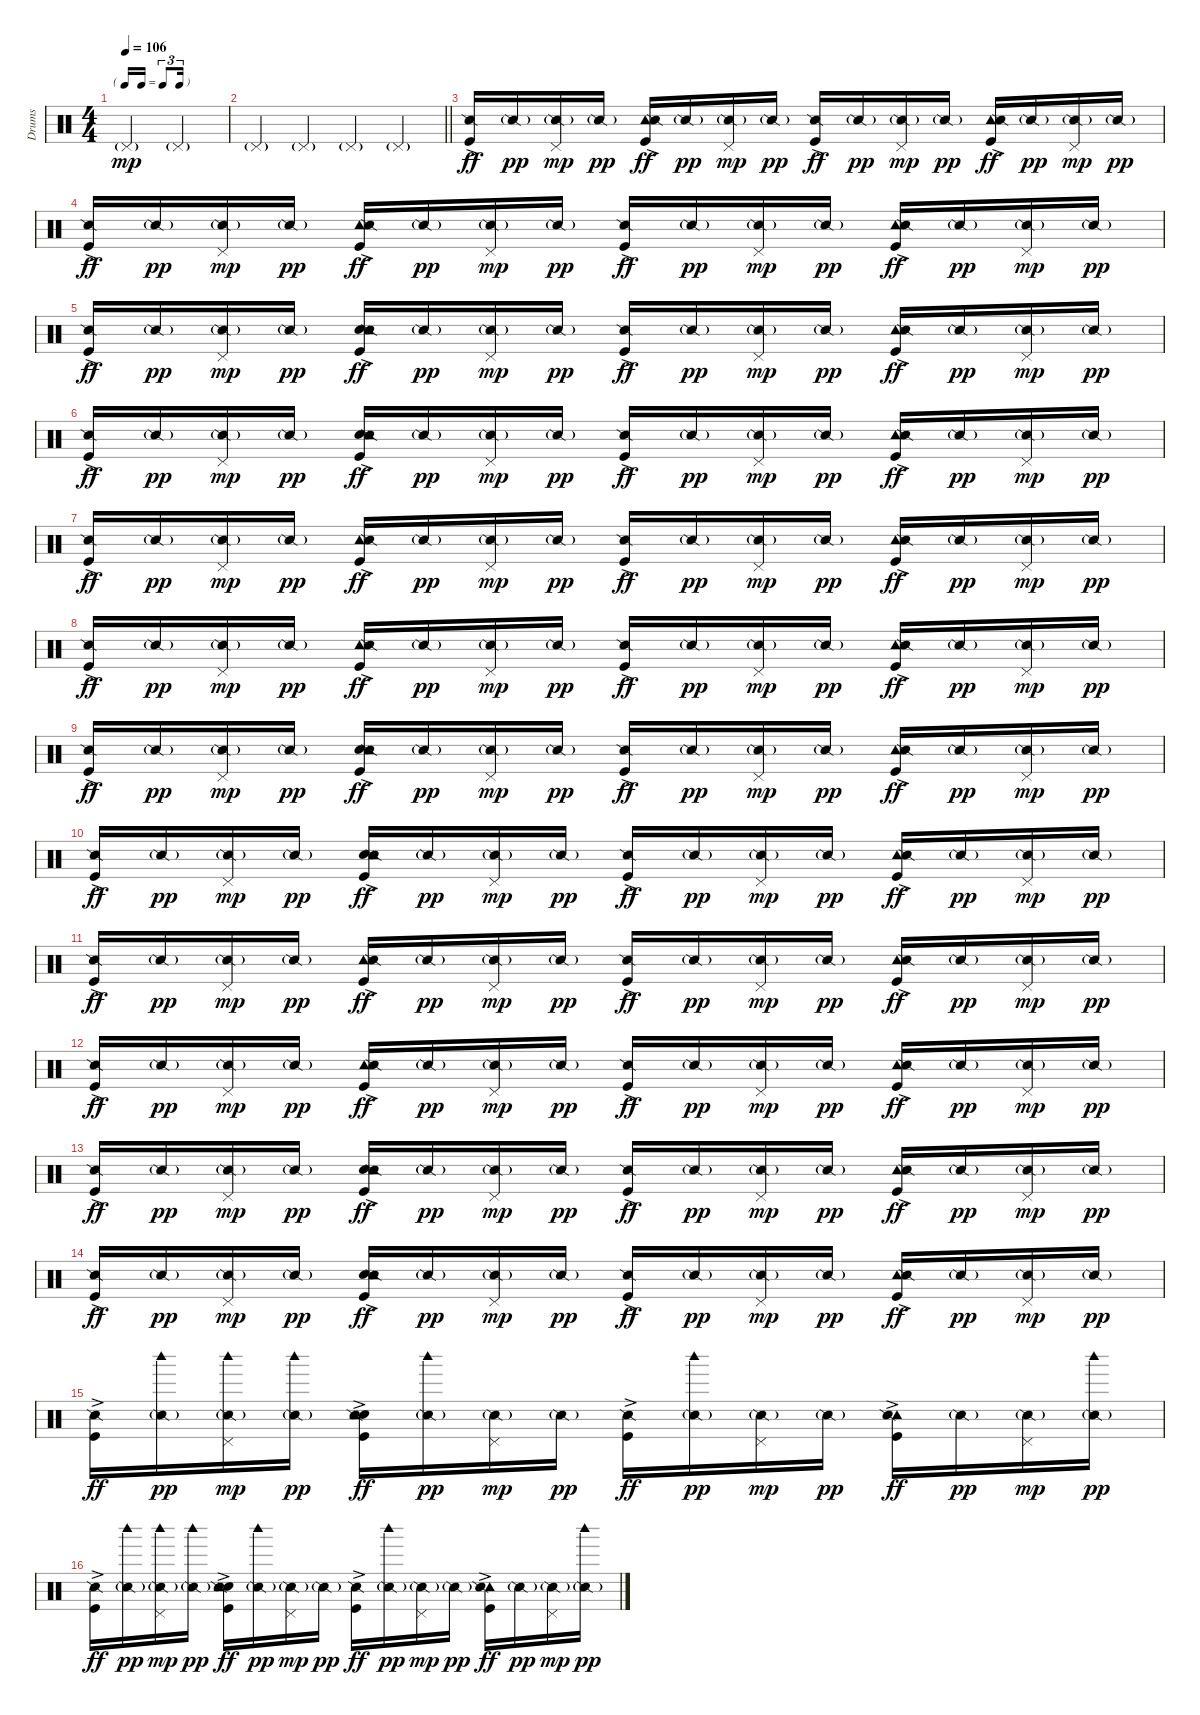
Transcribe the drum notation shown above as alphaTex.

\track ("Drums" "Drums") {instrument percussion}
\staff {score}
\articulation defaults
\ts (4 4)
\tf triplet16th
\tempo 106
\clef neutral
\ks c "Pedal Hi-Hat (hit)"{g}.2{dy mp} "Pedal Hi-Hat (hit)"{g}.2
|
\barLineRight lightlight "Pedal Hi-Hat (hit)"{g}.4 "Pedal Hi-Hat (hit)"{g}.4 "Pedal Hi-Hat (hit)"{g}.4 "Pedal Hi-Hat (hit)"{g}.4
|
("Kick (hit)"{ac} "Snare (side stick) 2").16{dy ff} "Snare (side stick) 2"{g}.16{dy pp} ("Pedal Hi-Hat (hit)" "Snare (side stick) 2"{g}).16{dy mp} "Snare (side stick) 2"{g}.16{dy pp} ("Kick (hit)"{ac} "Tambourine (hit)" "Snare (side stick) 2").16{dy ff} "Snare (side stick) 2"{g}.16{dy pp} ("Pedal Hi-Hat (hit)" "Snare (side stick) 2"{g}).16{dy mp} "Snare (side stick) 2"{g}.16{dy pp} ("Kick (hit)"{ac} "Snare (side stick) 2").16{dy ff} "Snare (side stick) 2"{g}.16{dy pp} ("Pedal Hi-Hat (hit)" "Snare (side stick) 2"{g}).16{dy mp} "Snare (side stick) 2"{g}.16{dy pp} ("Kick (hit)"{ac} "Tambourine (hit)" "Snare (side stick) 2").16{dy ff} "Snare (side stick) 2"{g}.16{dy pp} ("Pedal Hi-Hat (hit)" "Snare (side stick) 2"{g}).16{dy mp} "Snare (side stick) 2"{g}.16{dy pp} |
("Kick (hit)"{ac} "Snare (side stick) 2").16{dy ff} "Snare (side stick) 2"{g}.16{dy pp} ("Pedal Hi-Hat (hit)" "Snare (side stick) 2"{g}).16{dy mp} "Snare (side stick) 2"{g}.16{dy pp} ("Kick (hit)"{ac} "Tambourine (hit)" "Snare (side stick) 2").16{dy ff} "Snare (side stick) 2"{g}.16{dy pp} ("Pedal Hi-Hat (hit)" "Snare (side stick) 2"{g}).16{dy mp} "Snare (side stick) 2"{g}.16{dy pp} ("Kick (hit)"{ac} "Snare (side stick) 2").16{dy ff} "Snare (side stick) 2"{g}.16{dy pp} ("Pedal Hi-Hat (hit)" "Snare (side stick) 2"{g}).16{dy mp} "Snare (side stick) 2"{g}.16{dy pp} ("Kick (hit)"{ac} "Tambourine (hit)" "Snare (side stick) 2").16{dy ff} "Snare (side stick) 2"{g}.16{dy pp} ("Pedal Hi-Hat (hit)" "Snare (side stick) 2"{g}).16{dy mp} "Snare (side stick) 2"{g}.16{dy pp} |
("Kick (hit)"{ac} "Snare (side stick) 2").16{dy ff} "Snare (side stick) 2"{g}.16{dy pp} ("Pedal Hi-Hat (hit)" "Snare (side stick) 2"{g}).16{dy mp} "Snare (side stick) 2"{g}.16{dy pp} ("Kick (hit)"{ac} "Hand Clap (hit)" "Tambourine (hit)" "Snare (side stick) 2").16{dy ff} "Snare (side stick) 2"{g}.16{dy pp} ("Pedal Hi-Hat (hit)" "Snare (side stick) 2"{g}).16{dy mp} "Snare (side stick) 2"{g}.16{dy pp} ("Kick (hit)"{ac} "Snare (side stick) 2").16{dy ff} "Snare (side stick) 2"{g}.16{dy pp} ("Pedal Hi-Hat (hit)" "Snare (side stick) 2"{g}).16{dy mp} "Snare (side stick) 2"{g}.16{dy pp} ("Kick (hit)"{ac} "Tambourine (hit)" "Snare (side stick) 2").16{dy ff} "Snare (side stick) 2"{g}.16{dy pp} ("Pedal Hi-Hat (hit)" "Snare (side stick) 2"{g}).16{dy mp} "Snare (side stick) 2"{g}.16{dy pp} |
("Kick (hit)"{ac} "Snare (side stick) 2").16{dy ff} "Snare (side stick) 2"{g}.16{dy pp} ("Pedal Hi-Hat (hit)" "Snare (side stick) 2"{g}).16{dy mp} "Snare (side stick) 2"{g}.16{dy pp} ("Kick (hit)"{ac} "Hand Clap (hit)" "Tambourine (hit)" "Snare (side stick) 2").16{dy ff} "Snare (side stick) 2"{g}.16{dy pp} ("Pedal Hi-Hat (hit)" "Snare (side stick) 2"{g}).16{dy mp} "Snare (side stick) 2"{g}.16{dy pp} ("Kick (hit)"{ac} "Snare (side stick) 2").16{dy ff} "Snare (side stick) 2"{g}.16{dy pp} ("Pedal Hi-Hat (hit)" "Snare (side stick) 2"{g}).16{dy mp} "Snare (side stick) 2"{g}.16{dy pp} ("Kick (hit)"{ac} "Tambourine (hit)" "Snare (side stick) 2").16{dy ff} "Snare (side stick) 2"{g}.16{dy pp} ("Pedal Hi-Hat (hit)" "Snare (side stick) 2"{g}).16{dy mp} "Snare (side stick) 2"{g}.16{dy pp} |
("Kick (hit)"{ac} "Snare (side stick) 2").16{dy ff} "Snare (side stick) 2"{g}.16{dy pp} ("Pedal Hi-Hat (hit)" "Snare (side stick) 2"{g}).16{dy mp} "Snare (side stick) 2"{g}.16{dy pp} ("Kick (hit)"{ac} "Tambourine (hit)" "Snare (side stick) 2").16{dy ff} "Snare (side stick) 2"{g}.16{dy pp} ("Pedal Hi-Hat (hit)" "Snare (side stick) 2"{g}).16{dy mp} "Snare (side stick) 2"{g}.16{dy pp} ("Kick (hit)"{ac} "Snare (side stick) 2").16{dy ff} "Snare (side stick) 2"{g}.16{dy pp} ("Pedal Hi-Hat (hit)" "Snare (side stick) 2"{g}).16{dy mp} "Snare (side stick) 2"{g}.16{dy pp} ("Kick (hit)"{ac} "Tambourine (hit)" "Snare (side stick) 2").16{dy ff} "Snare (side stick) 2"{g}.16{dy pp} ("Pedal Hi-Hat (hit)" "Snare (side stick) 2"{g}).16{dy mp} "Snare (side stick) 2"{g}.16{dy pp} |
("Kick (hit)"{ac} "Snare (side stick) 2").16{dy ff} "Snare (side stick) 2"{g}.16{dy pp} ("Pedal Hi-Hat (hit)" "Snare (side stick) 2"{g}).16{dy mp} "Snare (side stick) 2"{g}.16{dy pp} ("Kick (hit)"{ac} "Tambourine (hit)" "Snare (side stick) 2").16{dy ff} "Snare (side stick) 2"{g}.16{dy pp} ("Pedal Hi-Hat (hit)" "Snare (side stick) 2"{g}).16{dy mp} "Snare (side stick) 2"{g}.16{dy pp} ("Kick (hit)"{ac} "Snare (side stick) 2").16{dy ff} "Snare (side stick) 2"{g}.16{dy pp} ("Pedal Hi-Hat (hit)" "Snare (side stick) 2"{g}).16{dy mp} "Snare (side stick) 2"{g}.16{dy pp} ("Kick (hit)"{ac} "Tambourine (hit)" "Snare (side stick) 2").16{dy ff} "Snare (side stick) 2"{g}.16{dy pp} ("Pedal Hi-Hat (hit)" "Snare (side stick) 2"{g}).16{dy mp} "Snare (side stick) 2"{g}.16{dy pp} |
("Kick (hit)"{ac} "Snare (side stick) 2").16{dy ff} "Snare (side stick) 2"{g}.16{dy pp} ("Pedal Hi-Hat (hit)" "Snare (side stick) 2"{g}).16{dy mp} "Snare (side stick) 2"{g}.16{dy pp} ("Kick (hit)"{ac} "Hand Clap (hit)" "Tambourine (hit)" "Snare (side stick) 2").16{dy ff} "Snare (side stick) 2"{g}.16{dy pp} ("Pedal Hi-Hat (hit)" "Snare (side stick) 2"{g}).16{dy mp} "Snare (side stick) 2"{g}.16{dy pp} ("Kick (hit)"{ac} "Snare (side stick) 2").16{dy ff} "Snare (side stick) 2"{g}.16{dy pp} ("Pedal Hi-Hat (hit)" "Snare (side stick) 2"{g}).16{dy mp} "Snare (side stick) 2"{g}.16{dy pp} ("Kick (hit)"{ac} "Tambourine (hit)" "Snare (side stick) 2").16{dy ff} "Snare (side stick) 2"{g}.16{dy pp} ("Pedal Hi-Hat (hit)" "Snare (side stick) 2"{g}).16{dy mp} "Snare (side stick) 2"{g}.16{dy pp} |
("Kick (hit)"{ac} "Snare (side stick) 2").16{dy ff} "Snare (side stick) 2"{g}.16{dy pp} ("Pedal Hi-Hat (hit)" "Snare (side stick) 2"{g}).16{dy mp} "Snare (side stick) 2"{g}.16{dy pp} ("Kick (hit)"{ac} "Hand Clap (hit)" "Tambourine (hit)" "Snare (side stick) 2").16{dy ff} "Snare (side stick) 2"{g}.16{dy pp} ("Pedal Hi-Hat (hit)" "Snare (side stick) 2"{g}).16{dy mp} "Snare (side stick) 2"{g}.16{dy pp} ("Kick (hit)"{ac} "Snare (side stick) 2").16{dy ff} "Snare (side stick) 2"{g}.16{dy pp} ("Pedal Hi-Hat (hit)" "Snare (side stick) 2"{g}).16{dy mp} "Snare (side stick) 2"{g}.16{dy pp} ("Kick (hit)"{ac} "Tambourine (hit)" "Snare (side stick) 2").16{dy ff} "Snare (side stick) 2"{g}.16{dy pp} ("Pedal Hi-Hat (hit)" "Snare (side stick) 2"{g}).16{dy mp} "Snare (side stick) 2"{g}.16{dy pp} |
("Kick (hit)"{ac} "Snare (side stick) 2").16{dy ff} "Snare (side stick) 2"{g}.16{dy pp} ("Pedal Hi-Hat (hit)" "Snare (side stick) 2"{g}).16{dy mp} "Snare (side stick) 2"{g}.16{dy pp} ("Kick (hit)"{ac} "Tambourine (hit)" "Snare (side stick) 2").16{dy ff} "Snare (side stick) 2"{g}.16{dy pp} ("Pedal Hi-Hat (hit)" "Snare (side stick) 2"{g}).16{dy mp} "Snare (side stick) 2"{g}.16{dy pp} ("Kick (hit)"{ac} "Snare (side stick) 2").16{dy ff} "Snare (side stick) 2"{g}.16{dy pp} ("Pedal Hi-Hat (hit)" "Snare (side stick) 2"{g}).16{dy mp} "Snare (side stick) 2"{g}.16{dy pp} ("Kick (hit)"{ac} "Tambourine (hit)" "Snare (side stick) 2").16{dy ff} "Snare (side stick) 2"{g}.16{dy pp} ("Pedal Hi-Hat (hit)" "Snare (side stick) 2"{g}).16{dy mp} "Snare (side stick) 2"{g}.16{dy pp} |
("Kick (hit)"{ac} "Snare (side stick) 2").16{dy ff} "Snare (side stick) 2"{g}.16{dy pp} ("Pedal Hi-Hat (hit)" "Snare (side stick) 2"{g}).16{dy mp} "Snare (side stick) 2"{g}.16{dy pp} ("Kick (hit)"{ac} "Tambourine (hit)" "Snare (side stick) 2").16{dy ff} "Snare (side stick) 2"{g}.16{dy pp} ("Pedal Hi-Hat (hit)" "Snare (side stick) 2"{g}).16{dy mp} "Snare (side stick) 2"{g}.16{dy pp} ("Kick (hit)"{ac} "Snare (side stick) 2").16{dy ff} "Snare (side stick) 2"{g}.16{dy pp} ("Pedal Hi-Hat (hit)" "Snare (side stick) 2"{g}).16{dy mp} "Snare (side stick) 2"{g}.16{dy pp} ("Kick (hit)"{ac} "Tambourine (hit)" "Snare (side stick) 2").16{dy ff} "Snare (side stick) 2"{g}.16{dy pp} ("Pedal Hi-Hat (hit)" "Snare (side stick) 2"{g}).16{dy mp} "Snare (side stick) 2"{g}.16{dy pp} |
("Kick (hit)"{ac} "Snare (side stick) 2").16{dy ff} "Snare (side stick) 2"{g}.16{dy pp} ("Pedal Hi-Hat (hit)" "Snare (side stick) 2"{g}).16{dy mp} "Snare (side stick) 2"{g}.16{dy pp} ("Kick (hit)"{ac} "Hand Clap (hit)" "Tambourine (hit)" "Snare (side stick) 2").16{dy ff} "Snare (side stick) 2"{g}.16{dy pp} ("Pedal Hi-Hat (hit)" "Snare (side stick) 2"{g}).16{dy mp} "Snare (side stick) 2"{g}.16{dy pp} ("Kick (hit)"{ac} "Snare (side stick) 2").16{dy ff} "Snare (side stick) 2"{g}.16{dy pp} ("Pedal Hi-Hat (hit)" "Snare (side stick) 2"{g}).16{dy mp} "Snare (side stick) 2"{g}.16{dy pp} ("Kick (hit)"{ac} "Tambourine (hit)" "Snare (side stick) 2").16{dy ff} "Snare (side stick) 2"{g}.16{dy pp} ("Pedal Hi-Hat (hit)" "Snare (side stick) 2"{g}).16{dy mp} "Snare (side stick) 2"{g}.16{dy pp} |
("Kick (hit)"{ac} "Snare (side stick) 2").16{dy ff} "Snare (side stick) 2"{g}.16{dy pp} ("Pedal Hi-Hat (hit)" "Snare (side stick) 2"{g}).16{dy mp} "Snare (side stick) 2"{g}.16{dy pp} ("Kick (hit)"{ac} "Hand Clap (hit)" "Tambourine (hit)" "Snare (side stick) 2").16{dy ff} "Snare (side stick) 2"{g}.16{dy pp} ("Pedal Hi-Hat (hit)" "Snare (side stick) 2"{g}).16{dy mp} "Snare (side stick) 2"{g}.16{dy pp} ("Kick (hit)"{ac} "Snare (side stick) 2").16{dy ff} "Snare (side stick) 2"{g}.16{dy pp} ("Pedal Hi-Hat (hit)" "Snare (side stick) 2"{g}).16{dy mp} "Snare (side stick) 2"{g}.16{dy pp} ("Kick (hit)"{ac} "Tambourine (hit)" "Snare (side stick) 2").16{dy ff} "Snare (side stick) 2"{g}.16{dy pp} ("Pedal Hi-Hat (hit)" "Snare (side stick) 2"{g}).16{dy mp} "Snare (side stick) 2"{g}.16{dy pp} |
("Kick (hit)"{ac} "Snare (side stick) 2").16{dy ff} ("Woodblock high (hit)" "Snare (side stick) 2"{g}).16{dy pp} ("Pedal Hi-Hat (hit)" "Woodblock high (hit)" "Snare (side stick) 2"{g}).16{dy mp} ("Woodblock high (hit)" "Snare (side stick) 2"{g}).16{dy pp} ("Kick (hit)"{ac} "Hand Clap (hit)" "Tambourine (hit)" "Snare (side stick) 2").16{dy ff} ("Woodblock high (hit)" "Snare (side stick) 2"{g}).16{dy pp} ("Pedal Hi-Hat (hit)" "Snare (side stick) 2"{g}).16{dy mp} "Snare (side stick) 2"{g}.16{dy pp} ("Kick (hit)"{ac} "Snare (side stick) 2").16{dy ff} ("Woodblock high (hit)" "Snare (side stick) 2"{g}).16{dy pp} ("Pedal Hi-Hat (hit)" "Snare (side stick) 2"{g}).16{dy mp} "Snare (side stick) 2"{g}.16{dy pp} ("Kick (hit)"{ac} "Tambourine (hit)" "Snare (side stick) 2").16{dy ff} "Snare (side stick) 2"{g}.16{dy pp} ("Pedal Hi-Hat (hit)" "Snare (side stick) 2"{g}).16{dy mp} ("Woodblock high (hit)" "Snare (side stick) 2"{g}).16{dy pp} |
("Kick (hit)"{ac} "Snare (side stick) 2").16{dy ff} ("Woodblock high (hit)" "Snare (side stick) 2"{g}).16{dy pp} ("Pedal Hi-Hat (hit)" "Woodblock high (hit)" "Snare (side stick) 2"{g}).16{dy mp} ("Woodblock high (hit)" "Snare (side stick) 2"{g}).16{dy pp} ("Kick (hit)"{ac} "Hand Clap (hit)" "Tambourine (hit)" "Snare (side stick) 2").16{dy ff} ("Woodblock high (hit)" "Snare (side stick) 2"{g}).16{dy pp} ("Pedal Hi-Hat (hit)" "Snare (side stick) 2"{g}).16{dy mp} "Snare (side stick) 2"{g}.16{dy pp} ("Kick (hit)"{ac} "Snare (side stick) 2").16{dy ff} ("Woodblock high (hit)" "Snare (side stick) 2"{g}).16{dy pp} ("Pedal Hi-Hat (hit)" "Snare (side stick) 2"{g}).16{dy mp} "Snare (side stick) 2"{g}.16{dy pp} ("Kick (hit)"{ac} "Tambourine (hit)" "Snare (side stick) 2").16{dy ff} "Snare (side stick) 2"{g}.16{dy pp} ("Pedal Hi-Hat (hit)" "Snare (side stick) 2"{g}).16{dy mp} ("Woodblock high (hit)" "Snare (side stick) 2"{g}).16{dy pp}
